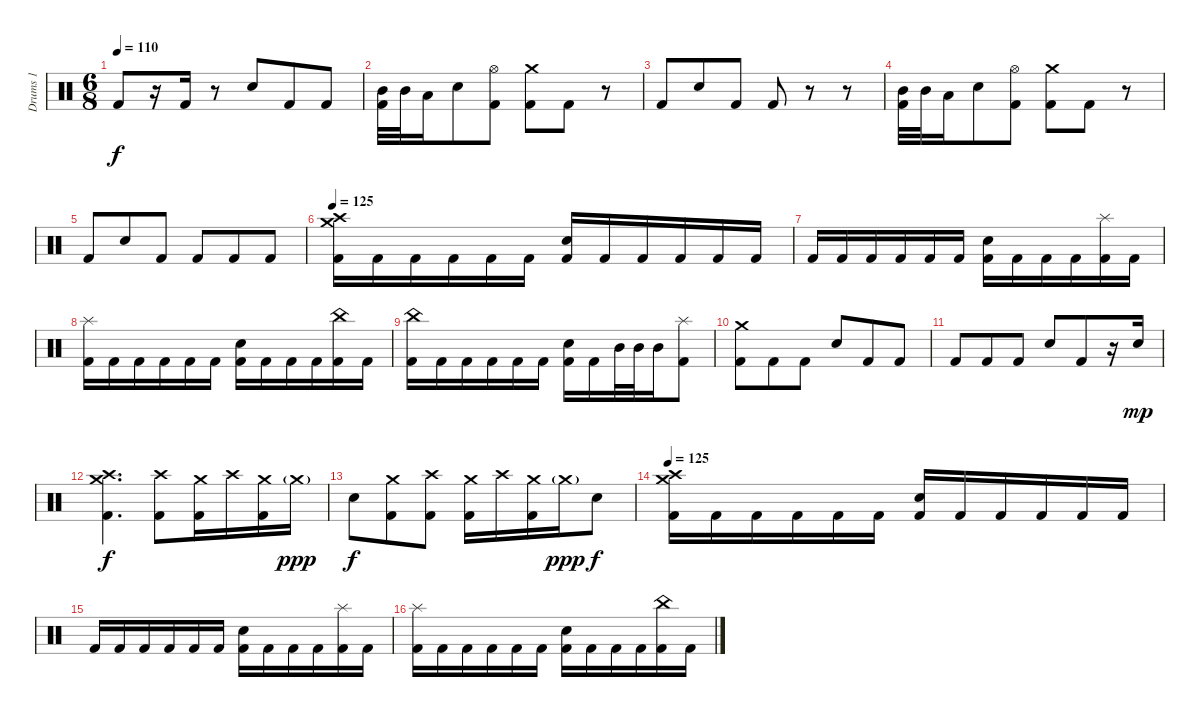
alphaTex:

\track ("Drums 1" "Drums 1") {instrument percussion}
\staff {score}
\articulation defaults
\ts (6 8)
\tempo 110
\clef neutral
\ks c "Kick (hit) 2".8{dy f}
r.16 "Kick (hit) 2".16 r.8 "Snare (hit) 2".8 "Kick (hit) 2".8 "Kick (hit) 2".8 |
("Mid Tom (hit)" "Kick (hit) 2").32 "Mid Tom (hit)".32 "Low Tom (hit)".16 "Snare (hit) 2".8 ("Hi-Hat (open)" "Kick (hit) 2").8 ("Crash medium (hit)" "Kick (hit) 2").8 "Kick (hit) 2".8 r.8 |
"Kick (hit) 2".8 "Snare (hit) 2".8 "Kick (hit) 2".8 "Kick (hit) 2".8 r.8 r.8 |
("Mid Tom (hit)" "Kick (hit) 2").32 "Mid Tom (hit)".32 "Low Tom (hit)".16 "Snare (hit) 2".8 ("Hi-Hat (open)" "Kick (hit) 2").8 ("Crash medium (hit)" "Kick (hit) 2").8 "Kick (hit) 2".8 r.8 |
"Kick (hit) 2".8 "Snare (hit) 2".8 "Kick (hit) 2".8 "Kick (hit) 2".8 "Kick (hit) 2".8 "Kick (hit) 2".8 |
\tempo 125
("Crash high (hit)" "Crash medium (hit)" "Kick (hit) 2").16 "Kick (hit) 2".16 "Kick (hit) 2".16 "Kick (hit) 2".16 "Kick (hit) 2".16 "Kick (hit) 2".16 ("Snare (hit) 2" "Kick (hit) 2").16 "Kick (hit) 2".16 "Kick (hit) 2".16 "Kick (hit) 2".16 "Kick (hit) 2".16 "Kick (hit) 2".16 |
"Kick (hit) 2".16 "Kick (hit) 2".16 "Kick (hit) 2".16 "Kick (hit) 2".16 "Kick (hit) 2".16 "Kick (hit) 2".16 ("Snare (hit) 2" "Kick (hit) 2").16 "Kick (hit) 2".16 "Kick (hit) 2".16 "Kick (hit) 2".16 ("Splash (hit)" "Kick (hit) 2").16 "Kick (hit) 2".16 |
("Splash (hit)" "Kick (hit) 2").16 "Kick (hit) 2".16 "Kick (hit) 2".16 "Kick (hit) 2".16 "Kick (hit) 2".16 "Kick (hit) 2".16 ("Snare (hit) 2" "Kick (hit) 2").16 "Kick (hit) 2".16 "Kick (hit) 2".16 "Kick (hit) 2".16 ("China (hit)" "Kick (hit) 2").16 "Kick (hit) 2".16 |
("China (hit)" "Kick (hit) 2").16 "Kick (hit) 2".16 "Kick (hit) 2".16 "Kick (hit) 2".16 "Kick (hit) 2".16 "Kick (hit) 2".16 ("Snare (hit) 2" "Kick (hit) 2").16 "Kick (hit) 2".16 "Mid Tom (hit)".32 "Mid Tom (hit)".32 "Mid Tom (hit)".16 ("Splash (hit)" "Kick (hit) 2").8 |
("Crash medium (hit)" "Kick (hit) 2").8 "Kick (hit) 2".8 "Kick (hit) 2".8 "Snare (hit) 2".8 "Kick (hit) 2".8 "Kick (hit) 2".8 |
"Kick (hit) 2".8 "Kick (hit) 2".8 "Kick (hit) 2".8 "Snare (hit) 2".8 "Kick (hit) 2".8 r.16 "Snare (hit) 2".16{dy mp} |
("Crash medium (hit)" "Crash high (hit)" "Kick (hit) 2").4{d dy f} ("Crash high (hit)" "Kick (hit) 2").8 ("Crash medium (hit)" "Kick (hit) 2").16 "Crash high (hit)".16 ("Crash medium (hit)" "Kick (hit) 2").16 "Crash medium (hit)"{g}.16{dy ppp} |
"Snare (hit) 2".8{dy f} ("Crash medium (hit)" "Kick (hit) 2").8 ("Crash high (hit)" "Kick (hit) 2").8 ("Crash medium (hit)" "Kick (hit) 2").16 "Crash high (hit)".16 ("Crash medium (hit)" "Kick (hit) 2").16 "Crash medium (hit)"{g}.16{dy ppp} "Snare (hit) 2".8{dy f} |
\tempo 125
("Crash high (hit)" "Crash medium (hit)" "Kick (hit) 2").16 "Kick (hit) 2".16 "Kick (hit) 2".16 "Kick (hit) 2".16 "Kick (hit) 2".16 "Kick (hit) 2".16 ("Snare (hit) 2" "Kick (hit) 2").16 "Kick (hit) 2".16 "Kick (hit) 2".16 "Kick (hit) 2".16 "Kick (hit) 2".16 "Kick (hit) 2".16 |
"Kick (hit) 2".16 "Kick (hit) 2".16 "Kick (hit) 2".16 "Kick (hit) 2".16 "Kick (hit) 2".16 "Kick (hit) 2".16 ("Snare (hit) 2" "Kick (hit) 2").16 "Kick (hit) 2".16 "Kick (hit) 2".16 "Kick (hit) 2".16 ("Splash (hit)" "Kick (hit) 2").16 "Kick (hit) 2".16 |
("Splash (hit)" "Kick (hit) 2").16 "Kick (hit) 2".16 "Kick (hit) 2".16 "Kick (hit) 2".16 "Kick (hit) 2".16 "Kick (hit) 2".16 ("Snare (hit) 2" "Kick (hit) 2").16 "Kick (hit) 2".16 "Kick (hit) 2".16 "Kick (hit) 2".16 ("China (hit)" "Kick (hit) 2").16 "Kick (hit) 2".16
